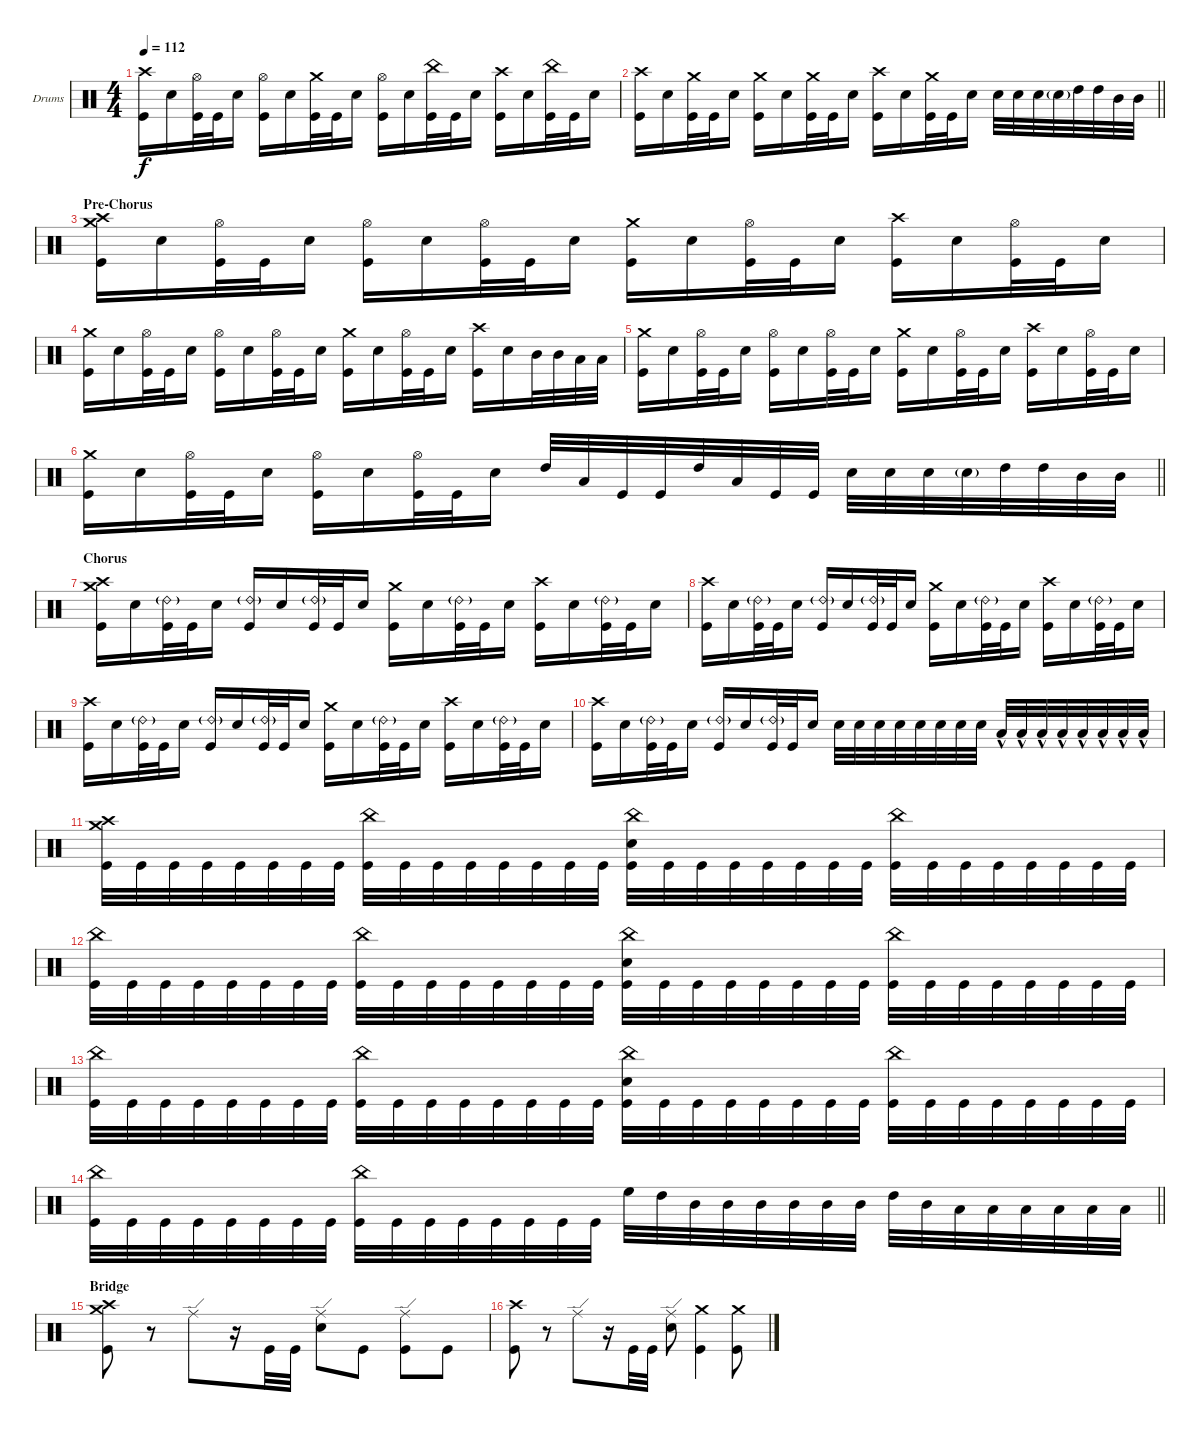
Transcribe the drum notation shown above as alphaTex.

\bracketExtendMode groupsimilarinstruments
\firstSystemTrackNameOrientation horizontal
\otherSystemsTrackNameOrientation horizontal
\track ("Drumkit" "Drums") {instrument percussion}
\staff {score}
\articulation defaults
\ts (4 4)
\tempo 112
\clef neutral
\scale
0.333333
\ks c
("Kick (hit)" "Crash high (hit)").16{dy f} "Snare (hit) 2".16 ("Kick (hit)" "Hi-Hat (open)").32 "Kick (hit)".32 "Snare (hit) 2".16 ("Kick (hit)" "Hi-Hat (open)").16 "Snare (hit) 2".16 ("Kick (hit)" "Crash medium (hit)").32 "Kick (hit)".32 "Snare (hit) 2".16 ("Kick (hit)" "Hi-Hat (open)").16 "Snare (hit) 2".16 ("Kick (hit)" "China (hit)").32 "Kick (hit)".32 "Snare (hit) 2".16 ("Kick (hit)" "Crash high (hit)").16 "Snare (hit) 2".16 ("Kick (hit)" "China (hit)").32 "Kick (hit)".32 "Snare (hit) 2".16 |
\scale
0.333333
\barLineRight lightlight
("Kick (hit)" "Crash high (hit)").16 "Snare (hit) 2".16 ("Kick (hit)" "Crash medium (hit)").32 "Kick (hit)".32 "Snare (hit) 2".16 ("Kick (hit)" "Crash medium (hit)").16 "Snare (hit) 2".16 ("Kick (hit)" "Crash medium (hit)").32 "Kick (hit)".32 "Snare (hit) 2".16 ("Kick (hit)" "Crash high (hit)").16 "Snare (hit) 2".16 ("Kick (hit)" "Crash medium (hit)").32 "Kick (hit)".32 "Snare (hit) 2".16 "Snare (hit) 2".32 "Snare (hit) 2".32 "Snare (hit) 2".32 "Snare (hit) 2"{g}.32 "High Tom (hit)".32 "High Tom (hit)".32 "Mid Tom (hit)".32 "Mid Tom (hit)".32 |
\section ("" "Pre-Chorus")
\scale
0.333333 ("Kick (hit)" "Crash medium (hit)" "Crash high (hit)").16 "Snare (hit) 2".16 ("Kick (hit)" "Hi-Hat (open)").32 "Kick (hit)".32 "Snare (hit) 2".16 ("Kick (hit)" "Hi-Hat (open)").16 "Snare (hit) 2".16 ("Kick (hit)" "Hi-Hat (open)").32 "Kick (hit)".32 "Snare (hit) 2".16 ("Kick (hit)" "Crash medium (hit)").16 "Snare (hit) 2".16 ("Kick (hit)" "Hi-Hat (open)").32 "Kick (hit)".32 "Snare (hit) 2".16 ("Kick (hit)" "Crash high (hit)").16 "Snare (hit) 2".16 ("Kick (hit)" "Hi-Hat (open)").32 "Kick (hit)".32 "Snare (hit) 2".16 |
\scale
0.333333 ("Kick (hit)" "Crash medium (hit)").16 "Snare (hit) 2".16 ("Kick (hit)" "Hi-Hat (open)").32 "Kick (hit)".32 "Snare (hit) 2".16 ("Kick (hit)" "Hi-Hat (open)").16 "Snare (hit) 2".16 ("Kick (hit)" "Hi-Hat (open)").32 "Kick (hit)".32 "Snare (hit) 2".16 ("Kick (hit)" "Crash medium (hit)").16 "Snare (hit) 2".16 ("Kick (hit)" "Hi-Hat (open)").32 "Kick (hit)".32 "Snare (hit) 2".16 ("Kick (hit)" "Crash high (hit)").16 "Snare (hit) 2".16 "Mid Tom (hit)".32 "Mid Tom (hit)".32 "Low Tom (hit)".32 "Low Tom (hit)".32 |
\scale
0.333333 ("Kick (hit)" "Crash medium (hit)").16 "Snare (hit) 2".16 ("Kick (hit)" "Hi-Hat (open)").32 "Kick (hit)".32 "Snare (hit) 2".16 ("Kick (hit)" "Hi-Hat (open)").16 "Snare (hit) 2".16 ("Kick (hit)" "Hi-Hat (open)").32 "Kick (hit)".32 "Snare (hit) 2".16 ("Kick (hit)" "Crash medium (hit)").16 "Snare (hit) 2".16 ("Kick (hit)" "Hi-Hat (open)").32 "Kick (hit)".32 "Snare (hit) 2".16 ("Kick (hit)" "Crash high (hit)").16 "Snare (hit) 2".16 ("Kick (hit)" "Hi-Hat (open)").32 "Kick (hit)".32 "Snare (hit) 2".16 |
\scale
0.333333
\barLineRight lightlight
("Kick (hit)" "Crash medium (hit)").16 "Snare (hit) 2".16 ("Kick (hit)" "Hi-Hat (open)").32 "Kick (hit)".32 "Snare (hit) 2".16 ("Kick (hit)" "Hi-Hat (open)").16 "Snare (hit) 2".16 ("Kick (hit)" "Hi-Hat (open)").32 "Kick (hit)".32 "Snare (hit) 2".16 "High Tom (hit)".32 "Low Tom (hit)".32 "Kick (hit)".32 "Kick (hit)".32 "High Tom (hit)".32 "Low Tom (hit)".32 "Kick (hit)".32 "Kick (hit)".32 "Snare (hit) 2".32 "Snare (hit) 2".32 "Snare (hit) 2".32 "Snare (hit) 2"{g}.32 "High Tom (hit)".32 "High Tom (hit)".32 "Mid Tom (hit)".32 "Mid Tom (hit)".32 |
\section ("" "Chorus")
\scale
0.333333 ("Kick (hit)" "Crash medium (hit)" "Crash high (hit)").16 "Snare (hit) 2".16 ("Kick (hit)" "Ride (bell) 2"{g}).32 "Kick (hit)".32 "Snare (hit) 2".16 ("Kick (hit)" "Ride (bell) 2"{g}).16 "Snare (hit) 2".16 ("Kick (hit)" "Ride (bell) 2"{g}).32 "Kick (hit)".32 "Snare (hit) 2".16 ("Kick (hit)" "Crash medium (hit)").16 "Snare (hit) 2".16 ("Kick (hit)" "Ride (bell) 2"{g}).32 "Kick (hit)".32 "Snare (hit) 2".16 ("Kick (hit)" "Crash high (hit)").16 "Snare (hit) 2".16 ("Kick (hit)" "Ride (bell) 2"{g}).32 "Kick (hit)".32 "Snare (hit) 2".16 |
\scale
0.333333 ("Kick (hit)" "Crash high (hit)").16 "Snare (hit) 2".16 ("Kick (hit)" "Ride (bell) 2"{g}).32 "Kick (hit)".32 "Snare (hit) 2".16 ("Kick (hit)" "Ride (bell) 2"{g}).16 "Snare (hit) 2".16 ("Kick (hit)" "Ride (bell) 2"{g}).32 "Kick (hit)".32 "Snare (hit) 2".16 ("Kick (hit)" "Crash medium (hit)").16 "Snare (hit) 2".16 ("Kick (hit)" "Ride (bell) 2"{g}).32 "Kick (hit)".32 "Snare (hit) 2".16 ("Kick (hit)" "Crash high (hit)").16 "Snare (hit) 2".16 ("Kick (hit)" "Ride (bell) 2"{g}).32 "Kick (hit)".32 "Snare (hit) 2".16 |
\scale
0.333333 ("Kick (hit)" "Crash high (hit)").16 "Snare (hit) 2".16 ("Kick (hit)" "Ride (bell) 2"{g}).32 "Kick (hit)".32 "Snare (hit) 2".16 ("Kick (hit)" "Ride (bell) 2"{g}).16 "Snare (hit) 2".16 ("Kick (hit)" "Ride (bell) 2"{g}).32 "Kick (hit)".32 "Snare (hit) 2".16 ("Kick (hit)" "Crash medium (hit)").16 "Snare (hit) 2".16 ("Kick (hit)" "Ride (bell) 2"{g}).32 "Kick (hit)".32 "Snare (hit) 2".16 ("Kick (hit)" "Crash high (hit)").16 "Snare (hit) 2".16 ("Kick (hit)" "Ride (bell) 2"{g}).32 "Kick (hit)".32 "Snare (hit) 2".16 |
\scale
0.333333 ("Kick (hit)" "Crash high (hit)").16 "Snare (hit) 2".16 ("Kick (hit)" "Ride (bell) 2"{g}).32 "Kick (hit)".32 "Snare (hit) 2".16 ("Kick (hit)" "Ride (bell) 2"{g}).16 "Snare (hit) 2".16 ("Kick (hit)" "Ride (bell) 2"{g}).32 "Kick (hit)".32 "Snare (hit) 2".16 "Snare (hit) 2".32 "Snare (hit) 2".32 "Snare (hit) 2".32 "Snare (hit) 2".32 "Snare (hit) 2".32 "Snare (hit) 2".32 "Snare (hit) 2".32 "Snare (hit) 2".32 "Low Tom (hit)"{hac}.32 "Low Tom (hit)"{hac}.32 "Low Tom (hit)"{hac}.32 "Low Tom (hit)"{hac}.32 "Low Tom (hit)"{hac}.32 "Low Tom (hit)"{hac}.32 "Low Tom (hit)"{hac}.32 "Low Tom (hit)"{hac}.32 |
\scale
0.333333 ("Kick (hit)" "Crash medium (hit)" "Crash high (hit)").32 "Kick (hit)".32 "Kick (hit)".32 "Kick (hit)".32 "Kick (hit)".32 "Kick (hit)".32 "Kick (hit)".32 "Kick (hit)".32 ("Kick (hit)" "China (hit)").32 "Kick (hit)".32 "Kick (hit)".32 "Kick (hit)".32 "Kick (hit)".32 "Kick (hit)".32 "Kick (hit)".32 "Kick (hit)".32 ("Kick (hit)" "Snare (hit) 2" "China (hit)").32 "Kick (hit)".32 "Kick (hit)".32 "Kick (hit)".32 "Kick (hit)".32 "Kick (hit)".32 "Kick (hit)".32 "Kick (hit)".32 ("Kick (hit)" "China (hit)").32 "Kick (hit)".32 "Kick (hit)".32 "Kick (hit)".32 "Kick (hit)".32 "Kick (hit)".32 "Kick (hit)".32 "Kick (hit)".32 |
\scale
0.333333 ("Kick (hit)" "China (hit)").32 "Kick (hit)".32 "Kick (hit)".32 "Kick (hit)".32 "Kick (hit)".32 "Kick (hit)".32 "Kick (hit)".32 "Kick (hit)".32 ("Kick (hit)" "China (hit)").32 "Kick (hit)".32 "Kick (hit)".32 "Kick (hit)".32 "Kick (hit)".32 "Kick (hit)".32 "Kick (hit)".32 "Kick (hit)".32 ("Kick (hit)" "Snare (hit) 2" "China (hit)").32 "Kick (hit)".32 "Kick (hit)".32 "Kick (hit)".32 "Kick (hit)".32 "Kick (hit)".32 "Kick (hit)".32 "Kick (hit)".32 ("Kick (hit)" "China (hit)").32 "Kick (hit)".32 "Kick (hit)".32 "Kick (hit)".32 "Kick (hit)".32 "Kick (hit)".32 "Kick (hit)".32 "Kick (hit)".32 |
\scale
0.333333 ("Kick (hit)" "China (hit)").32 "Kick (hit)".32 "Kick (hit)".32 "Kick (hit)".32 "Kick (hit)".32 "Kick (hit)".32 "Kick (hit)".32 "Kick (hit)".32 ("Kick (hit)" "China (hit)").32 "Kick (hit)".32 "Kick (hit)".32 "Kick (hit)".32 "Kick (hit)".32 "Kick (hit)".32 "Kick (hit)".32 "Kick (hit)".32 ("Kick (hit)" "Snare (hit) 2" "China (hit)").32 "Kick (hit)".32 "Kick (hit)".32 "Kick (hit)".32 "Kick (hit)".32 "Kick (hit)".32 "Kick (hit)".32 "Kick (hit)".32 ("Kick (hit)" "China (hit)").32 "Kick (hit)".32 "Kick (hit)".32 "Kick (hit)".32 "Kick (hit)".32 "Kick (hit)".32 "Kick (hit)".32 "Kick (hit)".32 |
\scale
0.333333
\barLineRight lightlight
("Kick (hit)" "China (hit)").32 "Kick (hit)".32 "Kick (hit)".32 "Kick (hit)".32 "Kick (hit)".32 "Kick (hit)".32 "Kick (hit)".32 "Kick (hit)".32 ("Kick (hit)" "China (hit)").32 "Kick (hit)".32 "Kick (hit)".32 "Kick (hit)".32 "Kick (hit)".32 "Kick (hit)".32 "Kick (hit)".32 "Kick (hit)".32 "High Floor Tom (hit)".32 "High Tom (hit)".32 "Mid Tom (hit)".32 "Mid Tom (hit)".32 "Mid Tom (hit)".32 "Mid Tom (hit)".32 "Mid Tom (hit)".32 "Mid Tom (hit)".32 "High Tom (hit)".32 "Mid Tom (hit)".32 "Low Tom (hit)".32 "Low Tom (hit)".32 "Low Tom (hit)".32 "Low Tom (hit)".32 "Low Tom (hit)".32 "Low Tom (hit)".32 |
\section ("" "Bridge")
\scale
0.333333 ("Kick (hit)" "Crash medium (hit)" "Crash high (hit)").8 r.8 "Ride (edge)".8 r.16 "Kick (hit)".32 "Kick (hit)".32 ("Snare (hit) 2" "Ride (edge)").8 "Kick (hit)".8 ("Kick (hit)" "Ride (edge)").8 "Kick (hit)".8 |
\scale
0.333333 ("Kick (hit)" "Crash high (hit)").8 r.8 "Ride (edge)".8 r.16 "Kick (hit)".32 "Kick (hit)".32 ("Snare (hit) 2" "Ride (edge)").8 ("Kick (hit)" "Crash medium (hit)").4 ("Kick (hit)" "Crash medium (hit)").8
